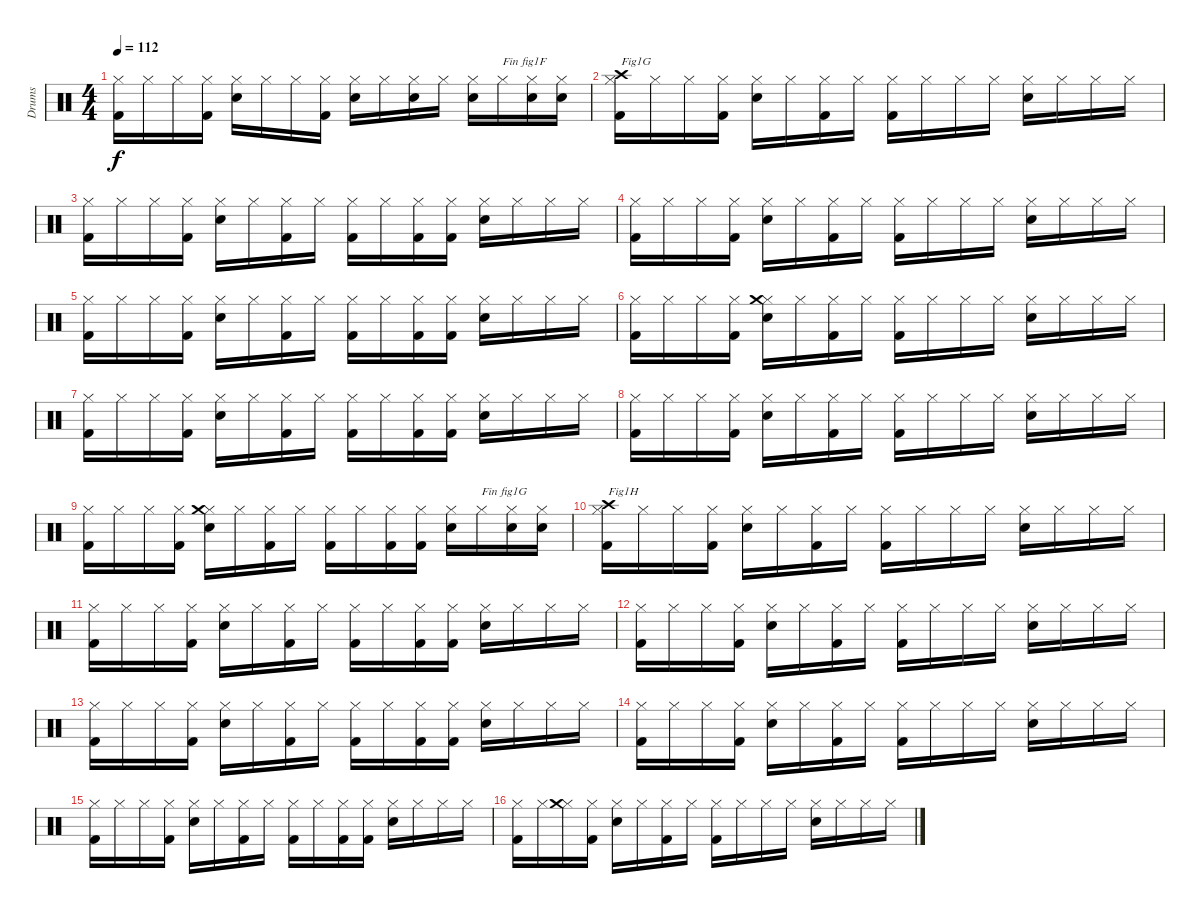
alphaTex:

\track ("Drums" "Drums") {instrument percussion}
\staff {score}
\articulation defaults
\ts (4 4)
\tempo 112
\clef neutral
\ks c
("Kick (hit) 2" "Hi-Hat (closed)").16{dy f} "Hi-Hat (closed)".16 "Hi-Hat (closed)".16 ("Kick (hit) 2" "Hi-Hat (closed)").16 ("Electric Snare (hit)" "Hi-Hat (closed)").16 "Hi-Hat (closed)".16 "Hi-Hat (closed)".16 ("Kick (hit) 2" "Hi-Hat (closed)").16 ("Electric Snare (hit)" "Hi-Hat (closed)").16 "Hi-Hat (closed)".16 ("Electric Snare (hit)" "Hi-Hat (closed)").16 "Hi-Hat (closed)".16 ("Electric Snare (hit)" "Hi-Hat (closed)").16 "Hi-Hat (closed)".16{txt "Fin fig1F"} ("Electric Snare (hit)" "Hi-Hat (closed)").16 ("Electric Snare (hit)" "Hi-Hat (closed)").16 |
("Kick (hit) 2" "Hi-Hat (closed)" "Crash high (hit)").16{txt "Fig1G"} "Hi-Hat (closed)".16 "Hi-Hat (closed)".16 ("Kick (hit) 2" "Hi-Hat (closed)").16 ("Electric Snare (hit)" "Hi-Hat (closed)").16 "Hi-Hat (closed)".16 ("Kick (hit) 2" "Hi-Hat (closed)").16 "Hi-Hat (closed)".16 ("Kick (hit) 2" "Hi-Hat (closed)").16 "Hi-Hat (closed)".16 "Hi-Hat (closed)".16 "Hi-Hat (closed)".16 ("Electric Snare (hit)" "Hi-Hat (closed)").16 "Hi-Hat (closed)".16 "Hi-Hat (closed)".16 "Hi-Hat (closed)".16 |
("Kick (hit) 2" "Hi-Hat (closed)").16 "Hi-Hat (closed)".16 "Hi-Hat (closed)".16 ("Kick (hit) 2" "Hi-Hat (closed)").16 ("Electric Snare (hit)" "Hi-Hat (closed)").16 "Hi-Hat (closed)".16 ("Kick (hit) 2" "Hi-Hat (closed)").16 "Hi-Hat (closed)".16 ("Kick (hit) 2" "Hi-Hat (closed)").16 "Hi-Hat (closed)".16 ("Kick (hit) 2" "Hi-Hat (closed)").16 ("Kick (hit) 2" "Hi-Hat (closed)").16 ("Electric Snare (hit)" "Hi-Hat (closed)").16 "Hi-Hat (closed)".16 "Hi-Hat (closed)".16 "Hi-Hat (closed)".16 |
("Kick (hit) 2" "Hi-Hat (closed)").16 "Hi-Hat (closed)".16 "Hi-Hat (closed)".16 ("Kick (hit) 2" "Hi-Hat (closed)").16 ("Electric Snare (hit)" "Hi-Hat (closed)").16 "Hi-Hat (closed)".16 ("Kick (hit) 2" "Hi-Hat (closed)").16 "Hi-Hat (closed)".16 ("Kick (hit) 2" "Hi-Hat (closed)").16 "Hi-Hat (closed)".16 "Hi-Hat (closed)".16 "Hi-Hat (closed)".16 ("Electric Snare (hit)" "Hi-Hat (closed)").16 "Hi-Hat (closed)".16 "Hi-Hat (closed)".16 "Hi-Hat (closed)".16 |
("Kick (hit) 2" "Hi-Hat (closed)").16 "Hi-Hat (closed)".16 "Hi-Hat (closed)".16 ("Kick (hit) 2" "Hi-Hat (closed)").16 ("Electric Snare (hit)" "Hi-Hat (closed)").16 "Hi-Hat (closed)".16 ("Kick (hit) 2" "Hi-Hat (closed)").16 "Hi-Hat (closed)".16 ("Kick (hit) 2" "Hi-Hat (closed)").16 "Hi-Hat (closed)".16 ("Kick (hit) 2" "Hi-Hat (closed)").16 ("Kick (hit) 2" "Hi-Hat (closed)").16 ("Electric Snare (hit)" "Hi-Hat (closed)").16 "Hi-Hat (closed)".16 "Hi-Hat (closed)".16 "Hi-Hat (closed)".16 |
("Kick (hit) 2" "Hi-Hat (closed)").16 "Hi-Hat (closed)".16 "Hi-Hat (closed)".16 ("Kick (hit) 2" "Hi-Hat (closed)").16 ("Electric Snare (hit)" "Hi-Hat (closed)" "Crash medium (hit)").16 "Hi-Hat (closed)".16 ("Kick (hit) 2" "Hi-Hat (closed)").16 "Hi-Hat (closed)".16 ("Kick (hit) 2" "Hi-Hat (closed)").16 "Hi-Hat (closed)".16 "Hi-Hat (closed)".16 "Hi-Hat (closed)".16 ("Electric Snare (hit)" "Hi-Hat (closed)").16 "Hi-Hat (closed)".16 "Hi-Hat (closed)".16 "Hi-Hat (closed)".16 |
("Kick (hit) 2" "Hi-Hat (closed)").16 "Hi-Hat (closed)".16 "Hi-Hat (closed)".16 ("Kick (hit) 2" "Hi-Hat (closed)").16 ("Electric Snare (hit)" "Hi-Hat (closed)").16 "Hi-Hat (closed)".16 ("Kick (hit) 2" "Hi-Hat (closed)").16 "Hi-Hat (closed)".16 ("Kick (hit) 2" "Hi-Hat (closed)").16 "Hi-Hat (closed)".16 ("Kick (hit) 2" "Hi-Hat (closed)").16 ("Kick (hit) 2" "Hi-Hat (closed)").16 ("Electric Snare (hit)" "Hi-Hat (closed)").16 "Hi-Hat (closed)".16 "Hi-Hat (closed)".16 "Hi-Hat (closed)".16 |
("Kick (hit) 2" "Hi-Hat (closed)").16 "Hi-Hat (closed)".16 "Hi-Hat (closed)".16 ("Kick (hit) 2" "Hi-Hat (closed)").16 ("Electric Snare (hit)" "Hi-Hat (closed)").16 "Hi-Hat (closed)".16 ("Kick (hit) 2" "Hi-Hat (closed)").16 "Hi-Hat (closed)".16 ("Kick (hit) 2" "Hi-Hat (closed)").16 "Hi-Hat (closed)".16 "Hi-Hat (closed)".16 "Hi-Hat (closed)".16 ("Electric Snare (hit)" "Hi-Hat (closed)").16 "Hi-Hat (closed)".16 "Hi-Hat (closed)".16 "Hi-Hat (closed)".16 |
("Kick (hit) 2" "Hi-Hat (closed)").16 "Hi-Hat (closed)".16 "Hi-Hat (closed)".16 ("Kick (hit) 2" "Hi-Hat (closed)").16 ("Electric Snare (hit)" "Hi-Hat (closed)" "Crash medium (hit)").16 "Hi-Hat (closed)".16 ("Kick (hit) 2" "Hi-Hat (closed)").16 "Hi-Hat (closed)".16 ("Kick (hit) 2" "Hi-Hat (closed)").16 "Hi-Hat (closed)".16 ("Kick (hit) 2" "Hi-Hat (closed)").16 ("Kick (hit) 2" "Hi-Hat (closed)").16 ("Electric Snare (hit)" "Hi-Hat (closed)").16 "Hi-Hat (closed)".16{txt "Fin fig1G"} ("Electric Snare (hit)" "Hi-Hat (closed)").16 ("Electric Snare (hit)" "Hi-Hat (closed)").16 |
("Kick (hit) 2" "Hi-Hat (closed)" "Crash high (hit)").16{txt "Fig1H"} "Hi-Hat (closed)".16 "Hi-Hat (closed)".16 ("Kick (hit) 2" "Hi-Hat (closed)").16 ("Electric Snare (hit)" "Hi-Hat (closed)").16 "Hi-Hat (closed)".16 ("Kick (hit) 2" "Hi-Hat (closed)").16 "Hi-Hat (closed)".16 ("Kick (hit) 2" "Hi-Hat (closed)").16 "Hi-Hat (closed)".16 "Hi-Hat (closed)".16 "Hi-Hat (closed)".16 ("Electric Snare (hit)" "Hi-Hat (closed)").16 "Hi-Hat (closed)".16 "Hi-Hat (closed)".16 "Hi-Hat (closed)".16 |
("Kick (hit) 2" "Hi-Hat (closed)").16 "Hi-Hat (closed)".16 "Hi-Hat (closed)".16 ("Kick (hit) 2" "Hi-Hat (closed)").16 ("Electric Snare (hit)" "Hi-Hat (closed)").16 "Hi-Hat (closed)".16 ("Kick (hit) 2" "Hi-Hat (closed)").16 "Hi-Hat (closed)".16 ("Kick (hit) 2" "Hi-Hat (closed)").16 "Hi-Hat (closed)".16 ("Kick (hit) 2" "Hi-Hat (closed)").16 ("Kick (hit) 2" "Hi-Hat (closed)").16 ("Electric Snare (hit)" "Hi-Hat (closed)").16 "Hi-Hat (closed)".16 "Hi-Hat (closed)".16 "Hi-Hat (closed)".16 |
("Kick (hit) 2" "Hi-Hat (closed)").16 "Hi-Hat (closed)".16 "Hi-Hat (closed)".16 ("Kick (hit) 2" "Hi-Hat (closed)").16 ("Electric Snare (hit)" "Hi-Hat (closed)").16 "Hi-Hat (closed)".16 ("Kick (hit) 2" "Hi-Hat (closed)").16 "Hi-Hat (closed)".16 ("Kick (hit) 2" "Hi-Hat (closed)").16 "Hi-Hat (closed)".16 "Hi-Hat (closed)".16 "Hi-Hat (closed)".16 ("Electric Snare (hit)" "Hi-Hat (closed)").16 "Hi-Hat (closed)".16 "Hi-Hat (closed)".16 "Hi-Hat (closed)".16 |
("Kick (hit) 2" "Hi-Hat (closed)").16 "Hi-Hat (closed)".16 "Hi-Hat (closed)".16 ("Kick (hit) 2" "Hi-Hat (closed)").16 ("Electric Snare (hit)" "Hi-Hat (closed)").16 "Hi-Hat (closed)".16 ("Kick (hit) 2" "Hi-Hat (closed)").16 "Hi-Hat (closed)".16 ("Kick (hit) 2" "Hi-Hat (closed)").16 "Hi-Hat (closed)".16 ("Kick (hit) 2" "Hi-Hat (closed)").16 ("Kick (hit) 2" "Hi-Hat (closed)").16 ("Electric Snare (hit)" "Hi-Hat (closed)").16 "Hi-Hat (closed)".16 "Hi-Hat (closed)".16 "Hi-Hat (closed)".16 |
("Kick (hit) 2" "Hi-Hat (closed)").16 "Hi-Hat (closed)".16 "Hi-Hat (closed)".16 ("Kick (hit) 2" "Hi-Hat (closed)").16 ("Electric Snare (hit)" "Hi-Hat (closed)").16 "Hi-Hat (closed)".16 ("Kick (hit) 2" "Hi-Hat (closed)").16 "Hi-Hat (closed)".16 ("Kick (hit) 2" "Hi-Hat (closed)").16 "Hi-Hat (closed)".16 "Hi-Hat (closed)".16 "Hi-Hat (closed)".16 ("Electric Snare (hit)" "Hi-Hat (closed)").16 "Hi-Hat (closed)".16 "Hi-Hat (closed)".16 "Hi-Hat (closed)".16 |
("Kick (hit) 2" "Hi-Hat (closed)").16 "Hi-Hat (closed)".16 "Hi-Hat (closed)".16 ("Kick (hit) 2" "Hi-Hat (closed)").16 ("Electric Snare (hit)" "Hi-Hat (closed)").16 "Hi-Hat (closed)".16 ("Kick (hit) 2" "Hi-Hat (closed)").16 "Hi-Hat (closed)".16 ("Kick (hit) 2" "Hi-Hat (closed)").16 "Hi-Hat (closed)".16 ("Kick (hit) 2" "Hi-Hat (closed)").16 ("Kick (hit) 2" "Hi-Hat (closed)").16 ("Electric Snare (hit)" "Hi-Hat (closed)").16 "Hi-Hat (closed)".16 "Hi-Hat (closed)".16 "Hi-Hat (closed)".16 |
("Kick (hit) 2" "Hi-Hat (closed)").16 "Hi-Hat (closed)".16 ("Hi-Hat (closed)" "Crash medium (hit)").16 ("Kick (hit) 2" "Hi-Hat (closed)").16 ("Electric Snare (hit)" "Hi-Hat (closed)").16 "Hi-Hat (closed)".16 ("Kick (hit) 2" "Hi-Hat (closed)").16 "Hi-Hat (closed)".16 ("Kick (hit) 2" "Hi-Hat (closed)").16 "Hi-Hat (closed)".16 "Hi-Hat (closed)".16 "Hi-Hat (closed)".16 ("Electric Snare (hit)" "Hi-Hat (closed)").16 "Hi-Hat (closed)".16 "Hi-Hat (closed)".16 "Hi-Hat (closed)".16
